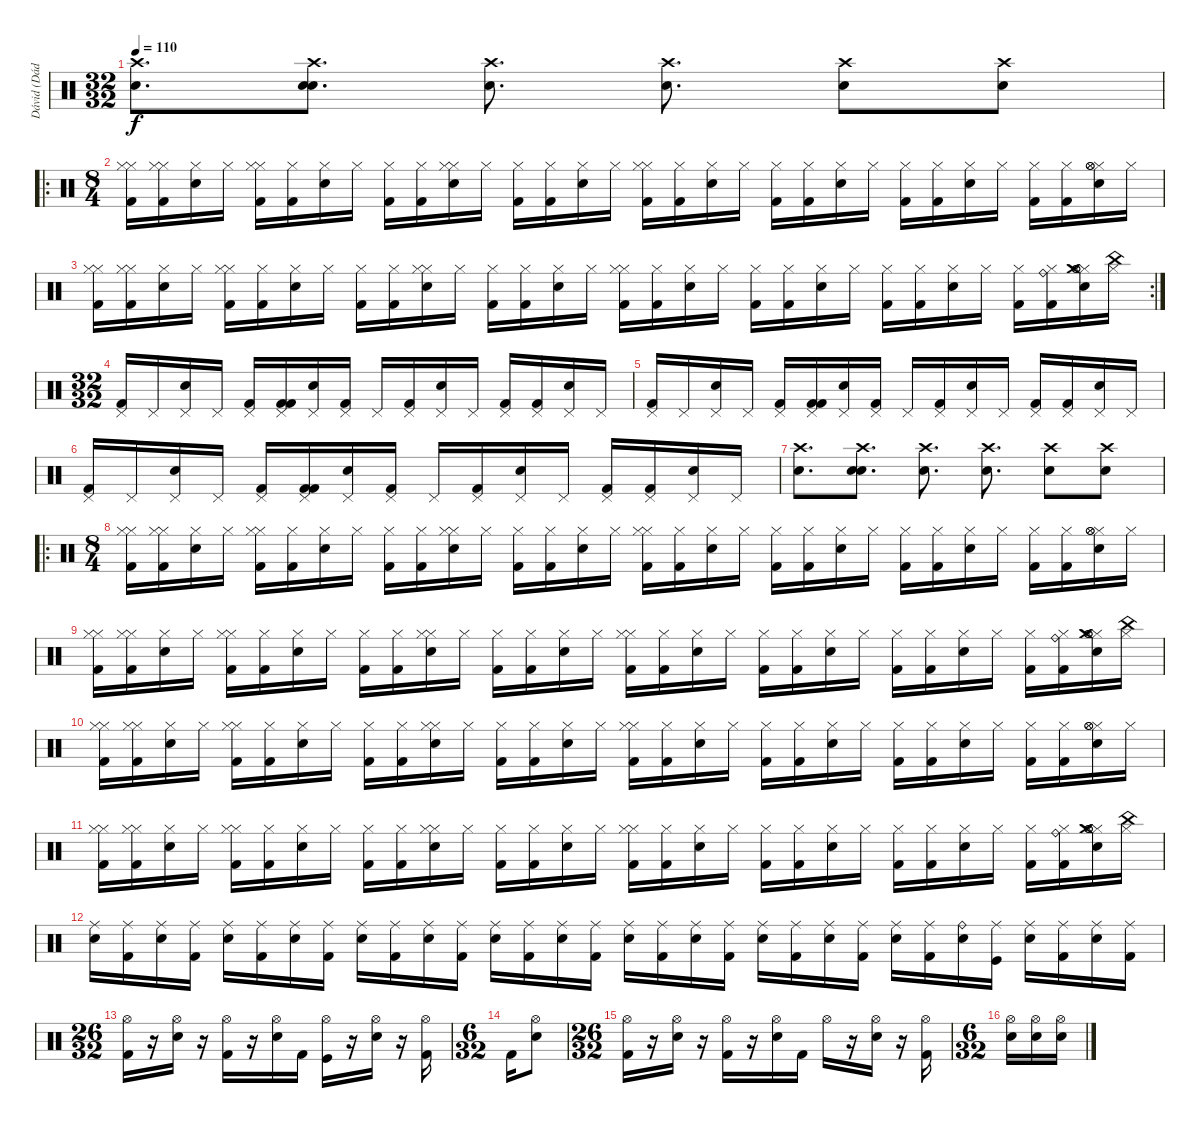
\track ("Dávid (Dádi)" "Dávid (Dád") {instrument percussion}
\staff {score}
\articulation defaults
\ts (32 32)
\tempo 110
\clef neutral
\ks c
("Crash high (hit)" "Electric Snare (hit)").8{d dy f} ("Crash high (hit)" "Electric Snare (hit)" "Electric Snare (hit)").8{d} ("Crash high (hit)" "Electric Snare (hit)").8{d} ("Crash high (hit)" "Electric Snare (hit)").8{d} ("Snare (hit) 2" "Crash high (hit)").8 ("Snare (hit) 2" "Crash high (hit)").8 |
\ro
\ts (8 4)
("Hi-Hat (closed)" "Hi-Hat (closed)" "Kick (hit) 2").16 ("Hi-Hat (closed)" "Hi-Hat (closed)" "Kick (hit) 2").16 ("Hi-Hat (closed)" "Electric Snare (hit)").16 "Hi-Hat (closed)".16 ("Hi-Hat (closed)" "Hi-Hat (closed)" "Kick (hit) 2").16 ("Hi-Hat (closed)" "Kick (hit) 2").16 ("Hi-Hat (closed)" "Electric Snare (hit)").16 "Hi-Hat (closed)".16 ("Hi-Hat (closed)" "Kick (hit) 2").16 ("Hi-Hat (closed)" "Kick (hit) 2").16 ("Hi-Hat (closed)" "Hi-Hat (closed)" "Electric Snare (hit)").16 "Hi-Hat (closed)".16 ("Hi-Hat (closed)" "Kick (hit) 2").16 ("Hi-Hat (closed)" "Kick (hit) 2").16 ("Hi-Hat (closed)" "Electric Snare (hit)").16 "Hi-Hat (closed)".16 ("Hi-Hat (closed)" "Hi-Hat (closed)" "Kick (hit) 2").16 ("Hi-Hat (closed)" "Kick (hit) 2").16 ("Hi-Hat (closed)" "Electric Snare (hit)").16 "Hi-Hat (closed)".16 ("Hi-Hat (closed)" "Kick (hit) 2").16 ("Hi-Hat (closed)" "Kick (hit) 2").16 ("Hi-Hat (closed)" "Electric Snare (hit)").16 "Hi-Hat (closed)".16 ("Hi-Hat (closed)" "Kick (hit) 2").16 ("Hi-Hat (closed)" "Kick (hit) 2").16 ("Hi-Hat (closed)" "Electric Snare (hit)").16 "Hi-Hat (closed)".16 ("Hi-Hat (closed)" "Kick (hit) 2").16 ("Hi-Hat (closed)" "Kick (hit) 2").16 ("Hi-Hat (closed)" "Electric Snare (hit)" "Hi-Hat (open)" "Hi-Hat (open)").16 "Hi-Hat (closed)".16 |
\rc 2
("Hi-Hat (closed)" "Hi-Hat (closed)" "Kick (hit) 2").16 ("Hi-Hat (closed)" "Hi-Hat (closed)" "Kick (hit) 2").16 ("Hi-Hat (closed)" "Electric Snare (hit)").16 "Hi-Hat (closed)".16 ("Hi-Hat (closed)" "Hi-Hat (closed)" "Kick (hit) 2").16 ("Hi-Hat (closed)" "Kick (hit) 2").16 ("Hi-Hat (closed)" "Electric Snare (hit)").16 "Hi-Hat (closed)".16 ("Hi-Hat (closed)" "Kick (hit) 2").16 ("Hi-Hat (closed)" "Kick (hit) 2").16 ("Hi-Hat (closed)" "Hi-Hat (closed)" "Electric Snare (hit)").16 "Hi-Hat (closed)".16 ("Hi-Hat (closed)" "Kick (hit) 2").16 ("Hi-Hat (closed)" "Kick (hit) 2").16 ("Hi-Hat (closed)" "Electric Snare (hit)").16 "Hi-Hat (closed)".16 ("Hi-Hat (closed)" "Hi-Hat (closed)" "Kick (hit) 2").16 ("Hi-Hat (closed)" "Kick (hit) 2").16 ("Hi-Hat (closed)" "Electric Snare (hit)").16 "Hi-Hat (closed)".16 ("Hi-Hat (closed)" "Kick (hit) 2").16 ("Hi-Hat (closed)" "Kick (hit) 2").16 ("Hi-Hat (closed)" "Electric Snare (hit)").16 "Hi-Hat (closed)".16 ("Hi-Hat (closed)" "Kick (hit) 2").16 ("Hi-Hat (closed)" "Kick (hit) 2").16 ("Hi-Hat (closed)" "Electric Snare (hit)").16 "Hi-Hat (closed)".16 ("Hi-Hat (closed)" "Kick (hit) 2").16 ("Hi-Hat (closed)" "Kick (hit) 2" "Ride (bell)").16 ("Hi-Hat (closed)" "Electric Snare (hit)" "Hi-Hat (open)" "Hi-Hat (open)" "Crash medium (hit)").16 ("Hi-Hat (closed)" "China (hit)").16 |
\ts (32 32)
("Pedal Hi-Hat (hit)" "Kick (hit) 2").16 "Pedal Hi-Hat (hit)".16 ("Pedal Hi-Hat (hit)" "Electric Snare (hit)").16 "Pedal Hi-Hat (hit)".16 ("Pedal Hi-Hat (hit)" "Kick (hit) 2").16 ("Pedal Hi-Hat (hit)" "Kick (hit) 2" "Kick (hit) 2").16 ("Pedal Hi-Hat (hit)" "Electric Snare (hit)").16 ("Pedal Hi-Hat (hit)" "Kick (hit) 2").16 "Pedal Hi-Hat (hit)".16 ("Pedal Hi-Hat (hit)" "Kick (hit) 2").16 ("Pedal Hi-Hat (hit)" "Electric Snare (hit)").16 "Pedal Hi-Hat (hit)".16 ("Pedal Hi-Hat (hit)" "Kick (hit) 2").16 ("Pedal Hi-Hat (hit)" "Kick (hit) 2").16 ("Pedal Hi-Hat (hit)" "Electric Snare (hit)").16 "Pedal Hi-Hat (hit)".16 |
("Pedal Hi-Hat (hit)" "Kick (hit) 2").16 "Pedal Hi-Hat (hit)".16 ("Pedal Hi-Hat (hit)" "Electric Snare (hit)").16 "Pedal Hi-Hat (hit)".16 ("Pedal Hi-Hat (hit)" "Kick (hit) 2").16 ("Pedal Hi-Hat (hit)" "Kick (hit) 2" "Kick (hit) 2").16 ("Pedal Hi-Hat (hit)" "Electric Snare (hit)").16 ("Pedal Hi-Hat (hit)" "Kick (hit) 2").16 "Pedal Hi-Hat (hit)".16 ("Pedal Hi-Hat (hit)" "Kick (hit) 2").16 ("Pedal Hi-Hat (hit)" "Electric Snare (hit)").16 "Pedal Hi-Hat (hit)".16 ("Pedal Hi-Hat (hit)" "Kick (hit) 2").16 ("Pedal Hi-Hat (hit)" "Kick (hit) 2").16 ("Pedal Hi-Hat (hit)" "Electric Snare (hit)").16 "Pedal Hi-Hat (hit)".16 |
("Pedal Hi-Hat (hit)" "Kick (hit) 2").16 "Pedal Hi-Hat (hit)".16 ("Pedal Hi-Hat (hit)" "Electric Snare (hit)").16 "Pedal Hi-Hat (hit)".16 ("Pedal Hi-Hat (hit)" "Kick (hit) 2").16 ("Pedal Hi-Hat (hit)" "Kick (hit) 2" "Kick (hit) 2").16 ("Pedal Hi-Hat (hit)" "Electric Snare (hit)").16 ("Pedal Hi-Hat (hit)" "Kick (hit) 2").16 "Pedal Hi-Hat (hit)".16 ("Pedal Hi-Hat (hit)" "Kick (hit) 2").16 ("Pedal Hi-Hat (hit)" "Electric Snare (hit)").16 "Pedal Hi-Hat (hit)".16 ("Pedal Hi-Hat (hit)" "Kick (hit) 2").16 ("Pedal Hi-Hat (hit)" "Kick (hit) 2").16 ("Pedal Hi-Hat (hit)" "Electric Snare (hit)").16 "Pedal Hi-Hat (hit)".16 |
("Crash high (hit)" "Electric Snare (hit)").8{d} ("Crash high (hit)" "Electric Snare (hit)" "Electric Snare (hit)").8{d} ("Crash high (hit)" "Electric Snare (hit)").8{d} ("Crash high (hit)" "Electric Snare (hit)").8{d} ("Snare (hit) 2" "Crash high (hit)").8 ("Snare (hit) 2" "Crash high (hit)").8 |
\ro
\ts (8 4)
("Hi-Hat (closed)" "Hi-Hat (closed)" "Kick (hit) 2").16 ("Hi-Hat (closed)" "Hi-Hat (closed)" "Kick (hit) 2").16 ("Hi-Hat (closed)" "Electric Snare (hit)").16 "Hi-Hat (closed)".16 ("Hi-Hat (closed)" "Hi-Hat (closed)" "Kick (hit) 2").16 ("Hi-Hat (closed)" "Kick (hit) 2").16 ("Hi-Hat (closed)" "Electric Snare (hit)").16 "Hi-Hat (closed)".16 ("Hi-Hat (closed)" "Kick (hit) 2").16 ("Hi-Hat (closed)" "Kick (hit) 2").16 ("Hi-Hat (closed)" "Hi-Hat (closed)" "Electric Snare (hit)").16 "Hi-Hat (closed)".16 ("Hi-Hat (closed)" "Kick (hit) 2").16 ("Hi-Hat (closed)" "Kick (hit) 2").16 ("Hi-Hat (closed)" "Electric Snare (hit)").16 "Hi-Hat (closed)".16 ("Hi-Hat (closed)" "Hi-Hat (closed)" "Kick (hit) 2").16 ("Hi-Hat (closed)" "Kick (hit) 2").16 ("Hi-Hat (closed)" "Electric Snare (hit)").16 "Hi-Hat (closed)".16 ("Hi-Hat (closed)" "Kick (hit) 2").16 ("Hi-Hat (closed)" "Kick (hit) 2").16 ("Hi-Hat (closed)" "Electric Snare (hit)").16 "Hi-Hat (closed)".16 ("Hi-Hat (closed)" "Kick (hit) 2").16 ("Hi-Hat (closed)" "Kick (hit) 2").16 ("Hi-Hat (closed)" "Electric Snare (hit)").16 "Hi-Hat (closed)".16 ("Hi-Hat (closed)" "Kick (hit) 2").16 ("Hi-Hat (closed)" "Kick (hit) 2").16 ("Hi-Hat (closed)" "Electric Snare (hit)" "Hi-Hat (open)" "Hi-Hat (open)").16 "Hi-Hat (closed)".16 |
("Hi-Hat (closed)" "Hi-Hat (closed)" "Kick (hit) 2").16 ("Hi-Hat (closed)" "Hi-Hat (closed)" "Kick (hit) 2").16 ("Hi-Hat (closed)" "Electric Snare (hit)").16 "Hi-Hat (closed)".16 ("Hi-Hat (closed)" "Hi-Hat (closed)" "Kick (hit) 2").16 ("Hi-Hat (closed)" "Kick (hit) 2").16 ("Hi-Hat (closed)" "Electric Snare (hit)").16 "Hi-Hat (closed)".16 ("Hi-Hat (closed)" "Kick (hit) 2").16 ("Hi-Hat (closed)" "Kick (hit) 2").16 ("Hi-Hat (closed)" "Hi-Hat (closed)" "Electric Snare (hit)").16 "Hi-Hat (closed)".16 ("Hi-Hat (closed)" "Kick (hit) 2").16 ("Hi-Hat (closed)" "Kick (hit) 2").16 ("Hi-Hat (closed)" "Electric Snare (hit)").16 "Hi-Hat (closed)".16 ("Hi-Hat (closed)" "Hi-Hat (closed)" "Kick (hit) 2").16 ("Hi-Hat (closed)" "Kick (hit) 2").16 ("Hi-Hat (closed)" "Electric Snare (hit)").16 "Hi-Hat (closed)".16 ("Hi-Hat (closed)" "Kick (hit) 2").16 ("Hi-Hat (closed)" "Kick (hit) 2").16 ("Hi-Hat (closed)" "Electric Snare (hit)").16 "Hi-Hat (closed)".16 ("Hi-Hat (closed)" "Kick (hit) 2").16 ("Hi-Hat (closed)" "Kick (hit) 2").16 ("Hi-Hat (closed)" "Electric Snare (hit)").16 "Hi-Hat (closed)".16 ("Hi-Hat (closed)" "Kick (hit) 2").16 ("Hi-Hat (closed)" "Kick (hit) 2" "Ride (bell)").16 ("Hi-Hat (closed)" "Electric Snare (hit)" "Hi-Hat (open)" "Hi-Hat (open)" "Crash medium (hit)").16 ("Hi-Hat (closed)" "China (hit)").16 |
("Hi-Hat (closed)" "Hi-Hat (closed)" "Kick (hit) 2").16 ("Hi-Hat (closed)" "Hi-Hat (closed)" "Kick (hit) 2").16 ("Hi-Hat (closed)" "Electric Snare (hit)").16 "Hi-Hat (closed)".16 ("Hi-Hat (closed)" "Hi-Hat (closed)" "Kick (hit) 2").16 ("Hi-Hat (closed)" "Kick (hit) 2").16 ("Hi-Hat (closed)" "Electric Snare (hit)").16 "Hi-Hat (closed)".16 ("Hi-Hat (closed)" "Kick (hit) 2").16 ("Hi-Hat (closed)" "Kick (hit) 2").16 ("Hi-Hat (closed)" "Hi-Hat (closed)" "Electric Snare (hit)").16 "Hi-Hat (closed)".16 ("Hi-Hat (closed)" "Kick (hit) 2").16 ("Hi-Hat (closed)" "Kick (hit) 2").16 ("Hi-Hat (closed)" "Electric Snare (hit)").16 "Hi-Hat (closed)".16 ("Hi-Hat (closed)" "Hi-Hat (closed)" "Kick (hit) 2").16 ("Hi-Hat (closed)" "Kick (hit) 2").16 ("Hi-Hat (closed)" "Electric Snare (hit)").16 "Hi-Hat (closed)".16 ("Hi-Hat (closed)" "Kick (hit) 2").16 ("Hi-Hat (closed)" "Kick (hit) 2").16 ("Hi-Hat (closed)" "Electric Snare (hit)").16 "Hi-Hat (closed)".16 ("Hi-Hat (closed)" "Kick (hit) 2").16 ("Hi-Hat (closed)" "Kick (hit) 2").16 ("Hi-Hat (closed)" "Electric Snare (hit)").16 "Hi-Hat (closed)".16 ("Hi-Hat (closed)" "Kick (hit) 2").16 ("Hi-Hat (closed)" "Kick (hit) 2").16 ("Hi-Hat (closed)" "Electric Snare (hit)" "Hi-Hat (open)" "Hi-Hat (open)").16 "Hi-Hat (closed)".16 |
("Hi-Hat (closed)" "Hi-Hat (closed)" "Kick (hit) 2").16 ("Hi-Hat (closed)" "Hi-Hat (closed)" "Kick (hit) 2").16 ("Hi-Hat (closed)" "Electric Snare (hit)").16 "Hi-Hat (closed)".16 ("Hi-Hat (closed)" "Hi-Hat (closed)" "Kick (hit) 2").16 ("Hi-Hat (closed)" "Kick (hit) 2").16 ("Hi-Hat (closed)" "Electric Snare (hit)").16 "Hi-Hat (closed)".16 ("Hi-Hat (closed)" "Kick (hit) 2").16 ("Hi-Hat (closed)" "Kick (hit) 2").16 ("Hi-Hat (closed)" "Hi-Hat (closed)" "Electric Snare (hit)").16 "Hi-Hat (closed)".16 ("Hi-Hat (closed)" "Kick (hit) 2").16 ("Hi-Hat (closed)" "Kick (hit) 2").16 ("Hi-Hat (closed)" "Electric Snare (hit)").16 "Hi-Hat (closed)".16 ("Hi-Hat (closed)" "Hi-Hat (closed)" "Kick (hit) 2").16 ("Hi-Hat (closed)" "Kick (hit) 2").16 ("Hi-Hat (closed)" "Electric Snare (hit)").16 "Hi-Hat (closed)".16 ("Hi-Hat (closed)" "Kick (hit) 2").16 ("Hi-Hat (closed)" "Kick (hit) 2").16 ("Hi-Hat (closed)" "Electric Snare (hit)").16 "Hi-Hat (closed)".16 ("Hi-Hat (closed)" "Kick (hit) 2").16 ("Hi-Hat (closed)" "Kick (hit) 2").16 ("Hi-Hat (closed)" "Electric Snare (hit)").16 "Hi-Hat (closed)".16 ("Hi-Hat (closed)" "Kick (hit) 2").16 ("Hi-Hat (closed)" "Kick (hit) 2" "Ride (bell)").16 ("Hi-Hat (closed)" "Electric Snare (hit)" "Hi-Hat (open)" "Hi-Hat (open)" "Crash medium (hit)").16 ("Hi-Hat (closed)" "China (hit)").16 |
("Ride (middle)" "Electric Snare (hit)").16 ("Ride (middle)" "Kick (hit) 2").16 ("Ride (middle)" "Electric Snare (hit)").16 ("Ride (middle)" "Kick (hit) 2").16 ("Ride (middle)" "Electric Snare (hit)").16 ("Ride (middle)" "Kick (hit) 2").16 ("Ride (middle)" "Electric Snare (hit)").16 ("Ride (middle)" "Kick (hit) 2").16 ("Ride (middle)" "Electric Snare (hit)").16 ("Ride (middle)" "Kick (hit) 2").16 ("Ride (middle)" "Electric Snare (hit)").16 ("Ride (middle)" "Kick (hit) 2").16 ("Ride (middle)" "Electric Snare (hit)").16 ("Ride (middle)" "Kick (hit) 2").16 ("Ride (middle)" "Electric Snare (hit)").16 ("Ride (middle)" "Kick (hit) 2").16 ("Ride (middle)" "Electric Snare (hit)").16 ("Ride (middle)" "Kick (hit) 2").16 ("Ride (middle)" "Electric Snare (hit)").16 ("Ride (middle)" "Kick (hit) 2").16 ("Ride (middle)" "Electric Snare (hit)").16 ("Ride (middle)" "Kick (hit) 2").16 ("Ride (middle)" "Electric Snare (hit)").16 ("Ride (middle)" "Kick (hit) 2").16 ("Ride (middle)" "Electric Snare (hit)").16 ("Ride (middle)" "Kick (hit) 2").16 ("Electric Snare (hit)" "Ride (bell)").16 ("Ride (middle)" "Kick (hit)").16 ("Ride (middle)" "Electric Snare (hit)").16 ("Ride (middle)" "Kick (hit) 2").16 ("Ride (middle)" "Electric Snare (hit)").16 ("Ride (middle)" "Kick (hit) 2").16 |
\ts (26 32)
("Kick (hit) 2" "Hi-Hat (open)").16 r.16 ("Electric Snare (hit)" "Hi-Hat (open)").16 r.16 ("Kick (hit) 2" "Hi-Hat (open)").16 r.16 ("Electric Snare (hit)" "Hi-Hat (open)").16 "Kick (hit) 2".16 ("Hi-Hat (open)" "Kick (hit)").16 r.16 ("Electric Snare (hit)" "Hi-Hat (open)").16 r.16 ("Kick (hit) 2" "Hi-Hat (open)").16 |
\ts (6 32)
"Kick (hit) 2".16 ("Hi-Hat (open)" "Electric Snare (hit)").8 |
\ts (26 32)
("Kick (hit) 2" "Hi-Hat (open)").16 r.16 ("Electric Snare (hit)" "Hi-Hat (open)").16 r.16 ("Kick (hit) 2" "Hi-Hat (open)").16 r.16 ("Electric Snare (hit)" "Hi-Hat (open)").16 "Kick (hit) 2".16 "Hi-Hat (open)".16 r.16 ("Electric Snare (hit)" "Hi-Hat (open)").16 r.16 ("Kick (hit) 2" "Hi-Hat (open)").16 |
\ts (6 32)
("Electric Snare (hit)" "Hi-Hat (open)").16 ("Electric Snare (hit)" "Hi-Hat (open)").16 ("Hi-Hat (open)" "Electric Snare (hit)").16
